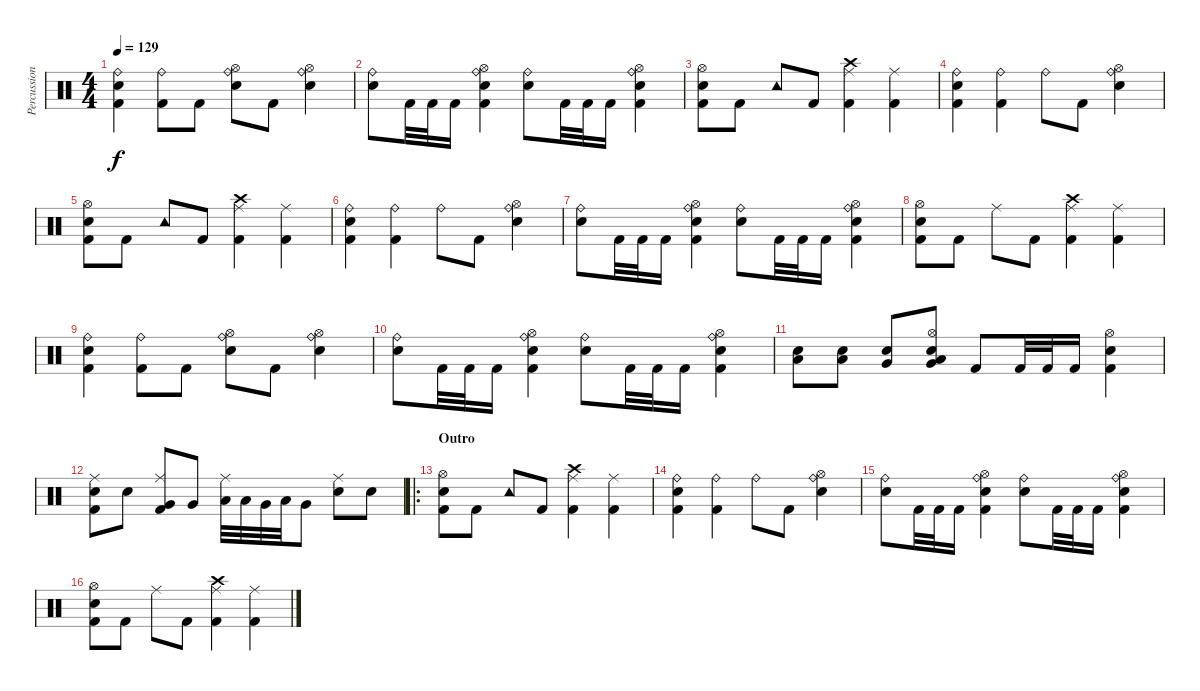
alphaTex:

\track ("Percussion" "Percussion") {instrument percussion}
\staff {score}
\articulation defaults
\ts (4 4)
\tempo 129
\clef neutral
\ks c
("Ride (bell)" "Electric Snare (hit)" "Kick (hit) 2").4{dy f} ("Ride (bell)" "Kick (hit) 2").8 "Kick (hit) 2".8 ("Ride (bell)" "Hi-Hat (open)" "Electric Snare (hit)").8 "Kick (hit) 2".8 ("Ride (bell)" "Hi-Hat (open)" "Electric Snare (hit)").4 |
("Ride (bell)" "Electric Snare (hit)").8 "Kick (hit) 2".32 "Kick (hit) 2".32 "Kick (hit) 2".16 ("Ride (bell)" "Hi-Hat (open)" "Kick (hit) 2" "Electric Snare (hit)").4 ("Ride (bell)" "Electric Snare (hit)").8 "Kick (hit) 2".32 "Kick (hit) 2".32 "Kick (hit) 2".16 ("Ride (bell)" "Hi-Hat (open)" "Kick (hit) 2" "Electric Snare (hit)").4 |
("Hi-Hat (open)" "Electric Snare (hit)" "Kick (hit) 2").8 "Kick (hit) 2".8 "Tambourine (hit)".8 "Kick (hit) 2".8 ("Ride (middle)" "Crash high (hit)" "Kick (hit) 2").4 ("Ride (middle)" "Kick (hit) 2").4 |
("Ride (bell)" "Electric Snare (hit)" "Kick (hit) 2").4 ("Ride (bell)" "Kick (hit) 2").4 "Ride (bell)".8 "Kick (hit) 2".8 ("Ride (bell)" "Hi-Hat (open)" "Electric Snare (hit)").4 |
("Hi-Hat (open)" "Electric Snare (hit)" "Kick (hit) 2").8 "Kick (hit) 2".8 "Tambourine (hit)".8 "Kick (hit) 2".8 ("Ride (middle)" "Crash high (hit)" "Kick (hit) 2").4 ("Ride (middle)" "Kick (hit) 2").4 |
("Ride (bell)" "Electric Snare (hit)" "Kick (hit) 2").4 ("Ride (bell)" "Kick (hit) 2").4 "Ride (bell)".8 "Kick (hit) 2".8 ("Ride (bell)" "Hi-Hat (open)" "Electric Snare (hit)").4 |
("Ride (bell)" "Electric Snare (hit)").8 "Kick (hit) 2".32 "Kick (hit) 2".32 "Kick (hit) 2".16 ("Ride (bell)" "Hi-Hat (open)" "Kick (hit) 2" "Electric Snare (hit)").4 ("Ride (bell)" "Electric Snare (hit)").8 "Kick (hit) 2".32 "Kick (hit) 2".32 "Kick (hit) 2".16 ("Ride (bell)" "Hi-Hat (open)" "Kick (hit) 2" "Electric Snare (hit)").4 |
("Hi-Hat (open)" "Electric Snare (hit)" "Kick (hit) 2").8 "Kick (hit) 2".8 "Ride (middle)".8 "Kick (hit) 2".8 ("Ride (middle)" "Crash high (hit)" "Kick (hit) 2").4 ("Ride (middle)" "Kick (hit) 2").4 |
("Ride (bell)" "Electric Snare (hit)" "Kick (hit) 2").4 ("Ride (bell)" "Kick (hit) 2").8 "Kick (hit) 2".8 ("Ride (bell)" "Hi-Hat (open)" "Electric Snare (hit)").8 "Kick (hit) 2".8 ("Ride (bell)" "Hi-Hat (open)" "Electric Snare (hit)").4 |
("Ride (bell)" "Electric Snare (hit)").8 "Kick (hit) 2".32 "Kick (hit) 2".32 "Kick (hit) 2".16 ("Ride (bell)" "Hi-Hat (open)" "Kick (hit) 2" "Electric Snare (hit)").4 ("Ride (bell)" "Electric Snare (hit)").8 "Kick (hit) 2".32 "Kick (hit) 2".32 "Kick (hit) 2".16 ("Ride (bell)" "Hi-Hat (open)" "Kick (hit) 2" "Electric Snare (hit)").4 |
("Low Tom (hit)" "Electric Snare (hit)").8 ("Low Tom (hit)" "Electric Snare (hit)").8 ("Very Low Tom (hit)" "Electric Snare (hit)").8 ("Hi-Hat (open)" "Very Low Tom (hit)" "Low Tom (hit)" "Electric Snare (hit)").8 "Kick (hit) 2".8 "Kick (hit) 2".32 "Kick (hit) 2".32 "Kick (hit) 2".16 ("Hi-Hat (open)" "Kick (hit) 2" "Electric Snare (hit)").4 |
("Ride (middle)" "Electric Snare (hit)" "Kick (hit) 2").8 "Electric Snare (hit)".8 ("Ride (middle)" "Very Low Tom (hit)" "Kick (hit) 2").8 "Very Low Tom (hit)".8 ("Ride (middle)" "Low Tom (hit)").32 "Low Tom (hit)".32 "Very Low Tom (hit)".32 "Low Floor Tom (hit)".32 "Very Low Tom (hit)".8 ("Ride (middle)" "Electric Snare (hit)").8 "Electric Snare (hit)".8 |
\ro
\section ("" "Outro")
("Hi-Hat (open)" "Electric Snare (hit)" "Kick (hit) 2").8 "Kick (hit) 2".8 "Tambourine (hit)".8 "Kick (hit) 2".8 ("Ride (middle)" "Crash high (hit)" "Kick (hit) 2").4 ("Ride (middle)" "Kick (hit) 2").4 |
("Ride (bell)" "Electric Snare (hit)" "Kick (hit) 2").4 ("Ride (bell)" "Kick (hit) 2").4 "Ride (bell)".8 "Kick (hit) 2".8 ("Ride (bell)" "Hi-Hat (open)" "Electric Snare (hit)").4 |
("Ride (bell)" "Electric Snare (hit)").8 "Kick (hit) 2".32 "Kick (hit) 2".32 "Kick (hit) 2".16 ("Ride (bell)" "Hi-Hat (open)" "Kick (hit) 2" "Electric Snare (hit)").4 ("Ride (bell)" "Electric Snare (hit)").8 "Kick (hit) 2".32 "Kick (hit) 2".32 "Kick (hit) 2".16 ("Ride (bell)" "Hi-Hat (open)" "Kick (hit) 2" "Electric Snare (hit)").4 |
("Hi-Hat (open)" "Electric Snare (hit)" "Kick (hit) 2").8 "Kick (hit) 2".8 "Ride (middle)".8 "Kick (hit) 2".8 ("Ride (middle)" "Crash high (hit)" "Kick (hit) 2").4 ("Ride (middle)" "Kick (hit) 2").4
